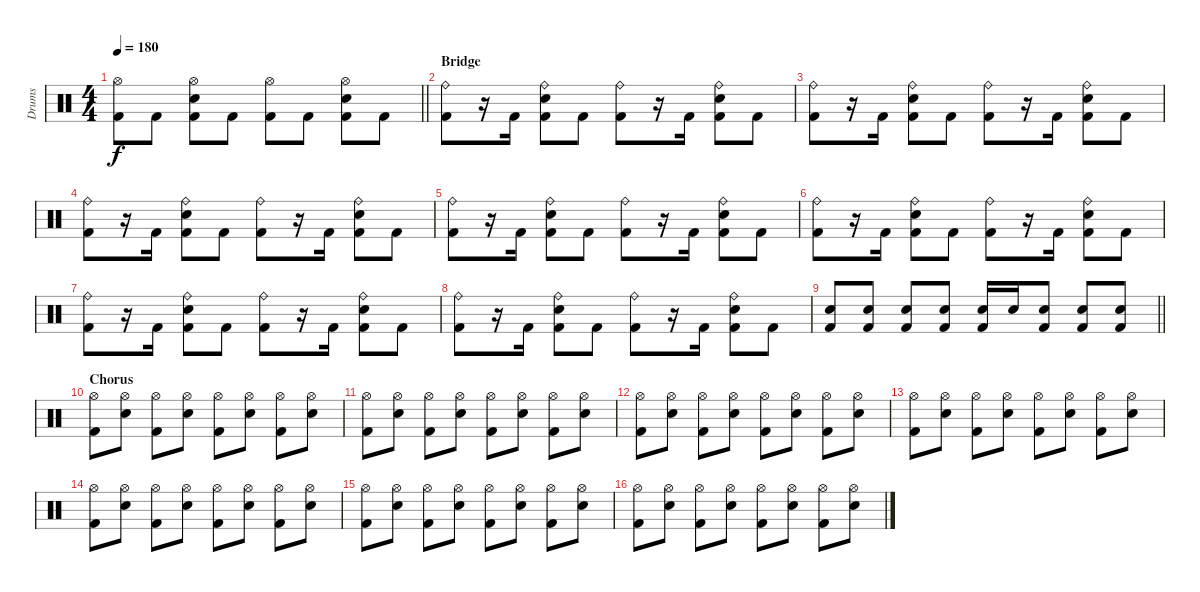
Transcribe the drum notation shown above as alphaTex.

\track ("Drums" "Drums") {instrument percussion}
\staff {score}
\articulation defaults
\ts (4 4)
\tempo 180
\clef neutral
\barLineRight lightlight
\ks c
("Hi-Hat (open)" "Kick (hit) 2").8{dy f} "Kick (hit) 2".8 ("Hi-Hat (open)" "Snare (hit) 2" "Kick (hit) 2").8 "Kick (hit) 2".8 ("Hi-Hat (open)" "Kick (hit) 2").8 "Kick (hit) 2".8 ("Hi-Hat (open)" "Snare (hit) 2" "Kick (hit) 2").8 "Kick (hit) 2".8 |
\section ("" "Bridge")
("Ride (bell)" "Kick (hit) 2").8 r.16 "Kick (hit) 2".16 ("Ride (bell)" "Snare (hit) 2" "Kick (hit) 2").8 "Kick (hit) 2".8 ("Ride (bell)" "Kick (hit) 2").8 r.16 "Kick (hit) 2".16 ("Ride (bell)" "Snare (hit) 2" "Kick (hit) 2").8 "Kick (hit) 2".8 |
("Ride (bell)" "Kick (hit) 2").8 r.16 "Kick (hit) 2".16 ("Ride (bell)" "Snare (hit) 2" "Kick (hit) 2").8 "Kick (hit) 2".8 ("Ride (bell)" "Kick (hit) 2").8 r.16 "Kick (hit) 2".16 ("Ride (bell)" "Snare (hit) 2" "Kick (hit) 2").8 "Kick (hit) 2".8 |
("Ride (bell)" "Kick (hit) 2").8 r.16 "Kick (hit) 2".16 ("Ride (bell)" "Snare (hit) 2" "Kick (hit) 2").8 "Kick (hit) 2".8 ("Ride (bell)" "Kick (hit) 2").8 r.16 "Kick (hit) 2".16 ("Ride (bell)" "Snare (hit) 2" "Kick (hit) 2").8 "Kick (hit) 2".8 |
("Ride (bell)" "Kick (hit) 2").8 r.16 "Kick (hit) 2".16 ("Ride (bell)" "Snare (hit) 2" "Kick (hit) 2").8 "Kick (hit) 2".8 ("Ride (bell)" "Kick (hit) 2").8 r.16 "Kick (hit) 2".16 ("Ride (bell)" "Snare (hit) 2" "Kick (hit) 2").8 "Kick (hit) 2".8 |
("Ride (bell)" "Kick (hit) 2").8 r.16 "Kick (hit) 2".16 ("Ride (bell)" "Snare (hit) 2" "Kick (hit) 2").8 "Kick (hit) 2".8 ("Ride (bell)" "Kick (hit) 2").8 r.16 "Kick (hit) 2".16 ("Ride (bell)" "Snare (hit) 2" "Kick (hit) 2").8 "Kick (hit) 2".8 |
("Ride (bell)" "Kick (hit) 2").8 r.16 "Kick (hit) 2".16 ("Ride (bell)" "Snare (hit) 2" "Kick (hit) 2").8 "Kick (hit) 2".8 ("Ride (bell)" "Kick (hit) 2").8 r.16 "Kick (hit) 2".16 ("Ride (bell)" "Snare (hit) 2" "Kick (hit) 2").8 "Kick (hit) 2".8 |
("Ride (bell)" "Kick (hit) 2").8 r.16 "Kick (hit) 2".16 ("Ride (bell)" "Snare (hit) 2" "Kick (hit) 2").8 "Kick (hit) 2".8 ("Ride (bell)" "Kick (hit) 2").8 r.16 "Kick (hit) 2".16 ("Ride (bell)" "Snare (hit) 2" "Kick (hit) 2").8 "Kick (hit) 2".8 |
\barLineRight lightlight
("Snare (hit) 2" "Kick (hit) 2").8 ("Snare (hit) 2" "Kick (hit) 2").8 ("Snare (hit) 2" "Kick (hit) 2").8 ("Snare (hit) 2" "Kick (hit) 2").8 ("Snare (hit) 2" "Kick (hit) 2").16 "Snare (hit) 2".16 ("Snare (hit) 2" "Kick (hit) 2").8 ("Snare (hit) 2" "Kick (hit) 2").8 ("Snare (hit) 2" "Kick (hit) 2").8 |
\section ("" "Chorus")
("Hi-Hat (open)" "Kick (hit) 2").8 ("Hi-Hat (open)" "Snare (hit) 2").8 ("Hi-Hat (open)" "Kick (hit) 2").8 ("Hi-Hat (open)" "Snare (hit) 2").8 ("Hi-Hat (open)" "Kick (hit) 2").8 ("Hi-Hat (open)" "Snare (hit) 2").8 ("Hi-Hat (open)" "Kick (hit) 2").8 ("Hi-Hat (open)" "Snare (hit) 2").8 |
("Hi-Hat (open)" "Kick (hit) 2").8 ("Hi-Hat (open)" "Snare (hit) 2").8 ("Hi-Hat (open)" "Kick (hit) 2").8 ("Hi-Hat (open)" "Snare (hit) 2").8 ("Hi-Hat (open)" "Kick (hit) 2").8 ("Hi-Hat (open)" "Snare (hit) 2").8 ("Hi-Hat (open)" "Kick (hit) 2").8 ("Hi-Hat (open)" "Snare (hit) 2").8 |
("Hi-Hat (open)" "Kick (hit) 2").8 ("Hi-Hat (open)" "Snare (hit) 2").8 ("Hi-Hat (open)" "Kick (hit) 2").8 ("Hi-Hat (open)" "Snare (hit) 2").8 ("Hi-Hat (open)" "Kick (hit) 2").8 ("Hi-Hat (open)" "Snare (hit) 2").8 ("Hi-Hat (open)" "Kick (hit) 2").8 ("Hi-Hat (open)" "Snare (hit) 2").8 |
("Hi-Hat (open)" "Kick (hit) 2").8 ("Hi-Hat (open)" "Snare (hit) 2").8 ("Hi-Hat (open)" "Kick (hit) 2").8 ("Hi-Hat (open)" "Snare (hit) 2").8 ("Hi-Hat (open)" "Kick (hit) 2").8 ("Hi-Hat (open)" "Snare (hit) 2").8 ("Hi-Hat (open)" "Kick (hit) 2").8 ("Hi-Hat (open)" "Snare (hit) 2").8 |
("Hi-Hat (open)" "Kick (hit) 2").8 ("Hi-Hat (open)" "Snare (hit) 2").8 ("Hi-Hat (open)" "Kick (hit) 2").8 ("Hi-Hat (open)" "Snare (hit) 2").8 ("Hi-Hat (open)" "Kick (hit) 2").8 ("Hi-Hat (open)" "Snare (hit) 2").8 ("Hi-Hat (open)" "Kick (hit) 2").8 ("Hi-Hat (open)" "Snare (hit) 2").8 |
("Hi-Hat (open)" "Kick (hit) 2").8 ("Hi-Hat (open)" "Snare (hit) 2").8 ("Hi-Hat (open)" "Kick (hit) 2").8 ("Hi-Hat (open)" "Snare (hit) 2").8 ("Hi-Hat (open)" "Kick (hit) 2").8 ("Hi-Hat (open)" "Snare (hit) 2").8 ("Hi-Hat (open)" "Kick (hit) 2").8 ("Hi-Hat (open)" "Snare (hit) 2").8 |
("Hi-Hat (open)" "Kick (hit) 2").8 ("Hi-Hat (open)" "Snare (hit) 2").8 ("Hi-Hat (open)" "Kick (hit) 2").8 ("Hi-Hat (open)" "Snare (hit) 2").8 ("Hi-Hat (open)" "Kick (hit) 2").8 ("Hi-Hat (open)" "Snare (hit) 2").8 ("Hi-Hat (open)" "Kick (hit) 2").8 ("Hi-Hat (open)" "Snare (hit) 2").8
